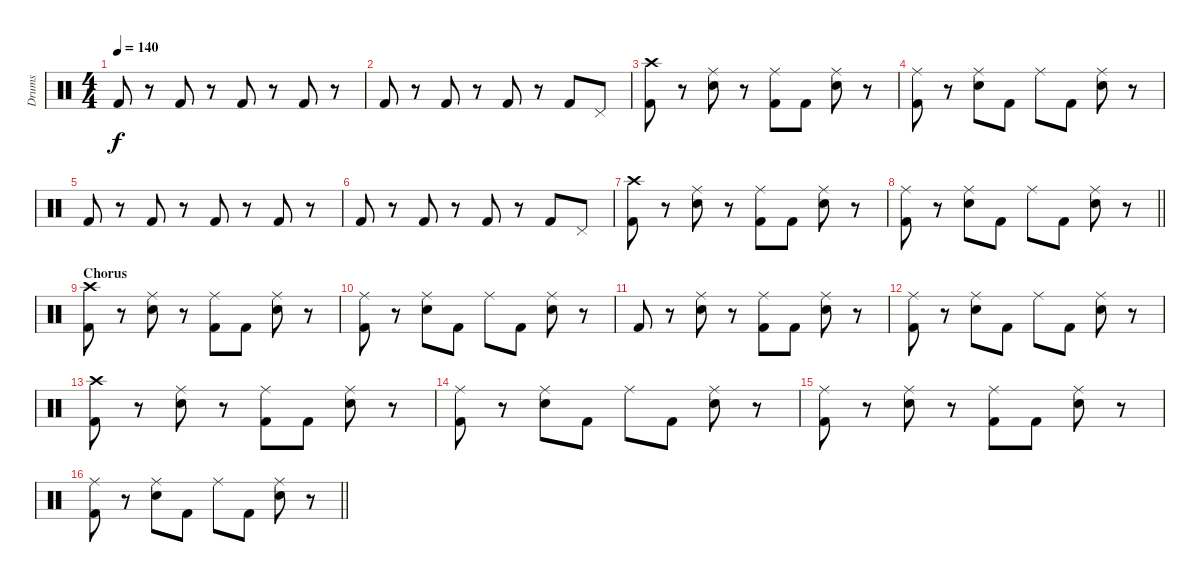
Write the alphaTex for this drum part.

\track ("Drums" "Drums") {instrument percussion}
\staff {score}
\articulation defaults
\ts (4 4)
\tempo 140
\clef neutral
\ks c "Kick (hit) 2".8{dy f}
r.8 "Kick (hit) 2".8 r.8 "Kick (hit) 2".8 r.8 "Kick (hit) 2".8 r.8 |
"Kick (hit) 2".8 r.8 "Kick (hit) 2".8 r.8 "Kick (hit) 2".8 r.8 "Kick (hit) 2".8 "Pedal Hi-Hat (hit)".8 |
("Crash high (hit)" "Kick (hit) 2").8 r.8 ("Ride (middle)" "Snare (hit) 2").8 r.8 ("Ride (middle)" "Kick (hit) 2").8 "Kick (hit) 2".8 ("Ride (middle)" "Snare (hit) 2").8 r.8 |
("Ride (middle)" "Kick (hit) 2").8 r.8 ("Ride (middle)" "Snare (hit) 2").8 "Kick (hit) 2".8 "Ride (middle)".8 "Kick (hit) 2".8 ("Ride (middle)" "Snare (hit) 2").8 r.8 |
"Kick (hit) 2".8 r.8 "Kick (hit) 2".8 r.8 "Kick (hit) 2".8 r.8 "Kick (hit) 2".8 r.8 |
"Kick (hit) 2".8 r.8 "Kick (hit) 2".8 r.8 "Kick (hit) 2".8 r.8 "Kick (hit) 2".8 "Pedal Hi-Hat (hit)".8 |
("Crash high (hit)" "Kick (hit) 2").8 r.8 ("Ride (middle)" "Snare (hit) 2").8 r.8 ("Ride (middle)" "Kick (hit) 2").8 "Kick (hit) 2".8 ("Ride (middle)" "Snare (hit) 2").8 r.8 |
\barLineRight lightlight
("Ride (middle)" "Kick (hit) 2").8 r.8 ("Ride (middle)" "Snare (hit) 2").8 "Kick (hit) 2".8 "Ride (middle)".8 "Kick (hit) 2".8 ("Ride (middle)" "Snare (hit) 2").8 r.8 |
\section ("" "Chorus")
("Crash high (hit)" "Kick (hit) 2").8 r.8 ("Ride (middle)" "Snare (hit) 2").8 r.8 ("Ride (middle)" "Kick (hit) 2").8 "Kick (hit) 2".8 ("Ride (middle)" "Snare (hit) 2").8 r.8 |
("Ride (middle)" "Kick (hit) 2").8 r.8 ("Ride (middle)" "Snare (hit) 2").8 "Kick (hit) 2".8 "Ride (middle)".8 "Kick (hit) 2".8 ("Ride (middle)" "Snare (hit) 2").8 r.8 |
"Kick (hit) 2".8 r.8 ("Ride (middle)" "Snare (hit) 2").8 r.8 ("Ride (middle)" "Kick (hit) 2").8 "Kick (hit) 2".8 ("Ride (middle)" "Snare (hit) 2").8 r.8 |
("Ride (middle)" "Kick (hit) 2").8 r.8 ("Ride (middle)" "Snare (hit) 2").8 "Kick (hit) 2".8 "Ride (middle)".8 "Kick (hit) 2".8 ("Ride (middle)" "Snare (hit) 2").8 r.8 |
("Crash high (hit)" "Kick (hit) 2").8 r.8 ("Ride (middle)" "Snare (hit) 2").8 r.8 ("Ride (middle)" "Kick (hit) 2").8 "Kick (hit) 2".8 ("Ride (middle)" "Snare (hit) 2").8 r.8 |
("Ride (middle)" "Kick (hit) 2").8 r.8 ("Ride (middle)" "Snare (hit) 2").8 "Kick (hit) 2".8 "Ride (middle)".8 "Kick (hit) 2".8 ("Ride (middle)" "Snare (hit) 2").8 r.8 |
("Ride (middle)" "Kick (hit) 2").8 r.8 ("Ride (middle)" "Snare (hit) 2").8 r.8 ("Ride (middle)" "Kick (hit) 2").8 "Kick (hit) 2".8 ("Ride (middle)" "Snare (hit) 2").8 r.8 |
\barLineRight lightlight
("Ride (middle)" "Kick (hit) 2").8 r.8 ("Ride (middle)" "Snare (hit) 2").8 "Kick (hit) 2".8 "Ride (middle)".8 "Kick (hit) 2".8 ("Ride (middle)" "Snare (hit) 2").8 r.8
